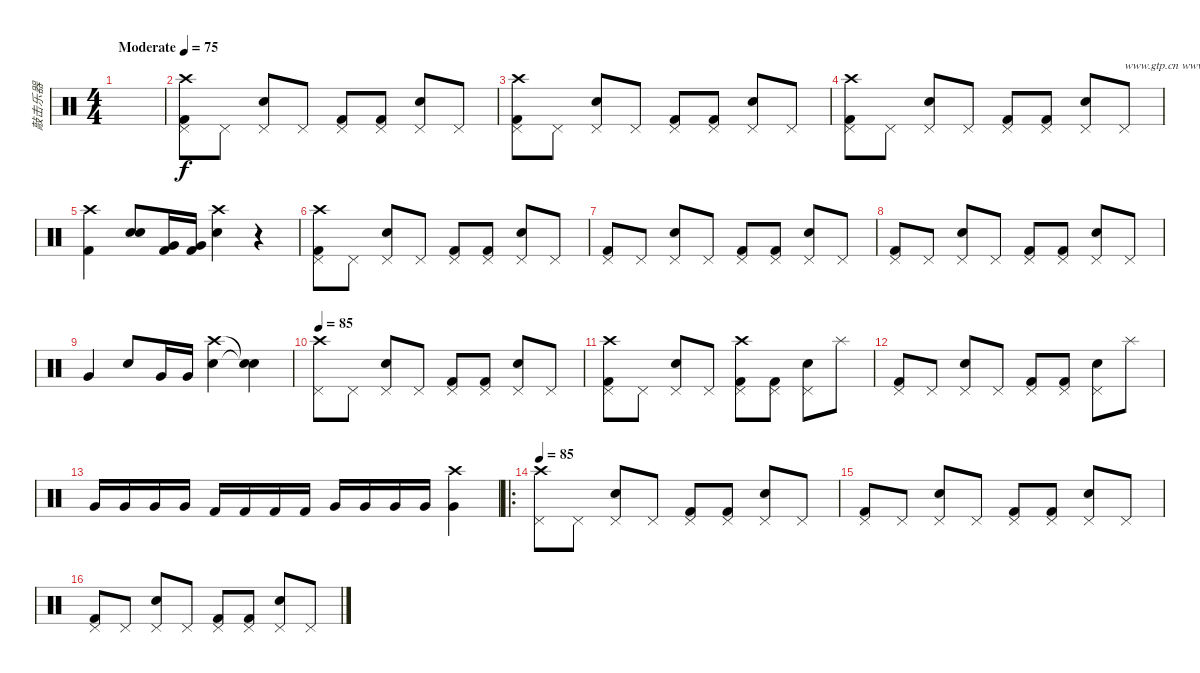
\track ("敲击乐器" "敲击乐器") {instrument percussion}
\staff {score}
\articulation defaults
\ts (4 4)
\tempo (75 "Moderate")
\tempo 100
\tempo (75 "Moderate")
\clef neutral
\ks c
|
("Kick (hit) 2" "Pedal Hi-Hat (hit)" "Crash high (hit)").8 "Pedal Hi-Hat (hit)".8 ("Snare (hit) 2" "Pedal Hi-Hat (hit)").8 "Pedal Hi-Hat (hit)".8 ("Kick (hit) 2" "Pedal Hi-Hat (hit)").8 ("Kick (hit) 2" "Pedal Hi-Hat (hit)").8 ("Snare (hit) 2" "Pedal Hi-Hat (hit)").8 "Pedal Hi-Hat (hit)".8 |
("Kick (hit) 2" "Pedal Hi-Hat (hit)" "Crash high (hit)").8 "Pedal Hi-Hat (hit)".8 ("Snare (hit) 2" "Pedal Hi-Hat (hit)").8 "Pedal Hi-Hat (hit)".8 ("Kick (hit) 2" "Pedal Hi-Hat (hit)").8 ("Kick (hit) 2" "Pedal Hi-Hat (hit)").8 ("Snare (hit) 2" "Pedal Hi-Hat (hit)").8 "Pedal Hi-Hat (hit)".8 |
("Kick (hit) 2" "Pedal Hi-Hat (hit)" "Crash high (hit)").8 "Pedal Hi-Hat (hit)".8 ("Snare (hit) 2" "Pedal Hi-Hat (hit)").8 "Pedal Hi-Hat (hit)".8 ("Kick (hit) 2" "Pedal Hi-Hat (hit)").8 ("Kick (hit) 2" "Pedal Hi-Hat (hit)").8 ("Snare (hit) 2" "Pedal Hi-Hat (hit)").8 "Pedal Hi-Hat (hit)".8{txt "www.gtp.cn www.51gtp.com联合为您提供优秀的GTP!"} |
("Crash high (hit)" "Kick (hit) 2").4 ("Electric Snare (hit)" "Electric Snare (hit)").8 ("Very Low Tom (hit)" "Kick (hit) 2").16 ("Very Low Tom (hit)" "Kick (hit) 2").16 ("Crash high (hit)" "Electric Snare (hit)").4 r.4 |
("Kick (hit) 2" "Pedal Hi-Hat (hit)" "Crash high (hit)").8 "Pedal Hi-Hat (hit)".8 ("Snare (hit) 2" "Pedal Hi-Hat (hit)").8 "Pedal Hi-Hat (hit)".8 ("Kick (hit) 2" "Pedal Hi-Hat (hit)").8 ("Kick (hit) 2" "Pedal Hi-Hat (hit)").8 ("Snare (hit) 2" "Pedal Hi-Hat (hit)").8 "Pedal Hi-Hat (hit)".8 |
("Kick (hit) 2" "Pedal Hi-Hat (hit)").8 "Pedal Hi-Hat (hit)".8 ("Snare (hit) 2" "Pedal Hi-Hat (hit)").8 "Pedal Hi-Hat (hit)".8 ("Kick (hit) 2" "Pedal Hi-Hat (hit)").8 ("Kick (hit) 2" "Pedal Hi-Hat (hit)").8 ("Snare (hit) 2" "Pedal Hi-Hat (hit)").8 "Pedal Hi-Hat (hit)".8 |
("Kick (hit) 2" "Pedal Hi-Hat (hit)").8 "Pedal Hi-Hat (hit)".8 ("Snare (hit) 2" "Pedal Hi-Hat (hit)").8 "Pedal Hi-Hat (hit)".8 ("Kick (hit) 2" "Pedal Hi-Hat (hit)").8 ("Kick (hit) 2" "Pedal Hi-Hat (hit)").8 ("Snare (hit) 2" "Pedal Hi-Hat (hit)").8 "Pedal Hi-Hat (hit)".8 |
"Very Low Tom (hit)".4 "Electric Snare (hit)".8 "Very Low Tom (hit)".16 "Very Low Tom (hit)".16 ("Crash high (hit)" "Electric Snare (hit)").4 ("Snare (hit)"{t} "Snare (hit)"{t}).4 |
\tempo 85
("Crash high (hit)" "Pedal Hi-Hat (hit)").8 "Pedal Hi-Hat (hit)".8 ("Snare (hit) 2" "Pedal Hi-Hat (hit)").8 "Pedal Hi-Hat (hit)".8 ("Kick (hit) 2" "Pedal Hi-Hat (hit)").8 ("Kick (hit) 2" "Pedal Hi-Hat (hit)").8 ("Snare (hit) 2" "Pedal Hi-Hat (hit)").8 "Pedal Hi-Hat (hit)".8 |
("Crash high (hit)" "Pedal Hi-Hat (hit)" "Kick (hit) 2").8 "Pedal Hi-Hat (hit)".8 ("Snare (hit) 2" "Pedal Hi-Hat (hit)").8 "Pedal Hi-Hat (hit)".8 ("Kick (hit) 2" "Pedal Hi-Hat (hit)" "Crash high (hit)").8 ("Kick (hit) 2" "Pedal Hi-Hat (hit)").8 ("Snare (hit) 2" "Pedal Hi-Hat (hit)").8 "Splash (hit)".8 |
("Kick (hit) 2" "Pedal Hi-Hat (hit)").8 "Pedal Hi-Hat (hit)".8 ("Snare (hit) 2" "Pedal Hi-Hat (hit)").8 "Pedal Hi-Hat (hit)".8 ("Kick (hit) 2" "Pedal Hi-Hat (hit)").8 ("Kick (hit) 2" "Pedal Hi-Hat (hit)").8 ("Snare (hit) 2" "Pedal Hi-Hat (hit)").8 "Splash (hit)".8 |
"Very Low Tom (hit)".16 "Very Low Tom (hit)".16 "Very Low Tom (hit)".16 "Very Low Tom (hit)".16 "Kick (hit) 2".16 "Kick (hit) 2".16 "Kick (hit) 2".16 "Kick (hit) 2".16 "Very Low Tom (hit)".16 "Very Low Tom (hit)".16 "Very Low Tom (hit)".16 "Very Low Tom (hit)".16 ("Crash high (hit)" "Very Low Tom (hit)").4 |
\ro
\tempo 85
("Crash high (hit)" "Pedal Hi-Hat (hit)").8 "Pedal Hi-Hat (hit)".8 ("Snare (hit) 2" "Pedal Hi-Hat (hit)").8 "Pedal Hi-Hat (hit)".8 ("Kick (hit) 2" "Pedal Hi-Hat (hit)").8 ("Kick (hit) 2" "Pedal Hi-Hat (hit)").8 ("Snare (hit) 2" "Pedal Hi-Hat (hit)").8 "Pedal Hi-Hat (hit)".8 |
("Kick (hit) 2" "Pedal Hi-Hat (hit)").8 "Pedal Hi-Hat (hit)".8 ("Snare (hit) 2" "Pedal Hi-Hat (hit)").8 "Pedal Hi-Hat (hit)".8 ("Kick (hit) 2" "Pedal Hi-Hat (hit)").8 ("Kick (hit) 2" "Pedal Hi-Hat (hit)").8 ("Snare (hit) 2" "Pedal Hi-Hat (hit)").8 "Pedal Hi-Hat (hit)".8 |
("Kick (hit) 2" "Pedal Hi-Hat (hit)").8 "Pedal Hi-Hat (hit)".8 ("Snare (hit) 2" "Pedal Hi-Hat (hit)").8 "Pedal Hi-Hat (hit)".8 ("Kick (hit) 2" "Pedal Hi-Hat (hit)").8 ("Kick (hit) 2" "Pedal Hi-Hat (hit)").8 ("Snare (hit) 2" "Pedal Hi-Hat (hit)").8 "Pedal Hi-Hat (hit)".8
